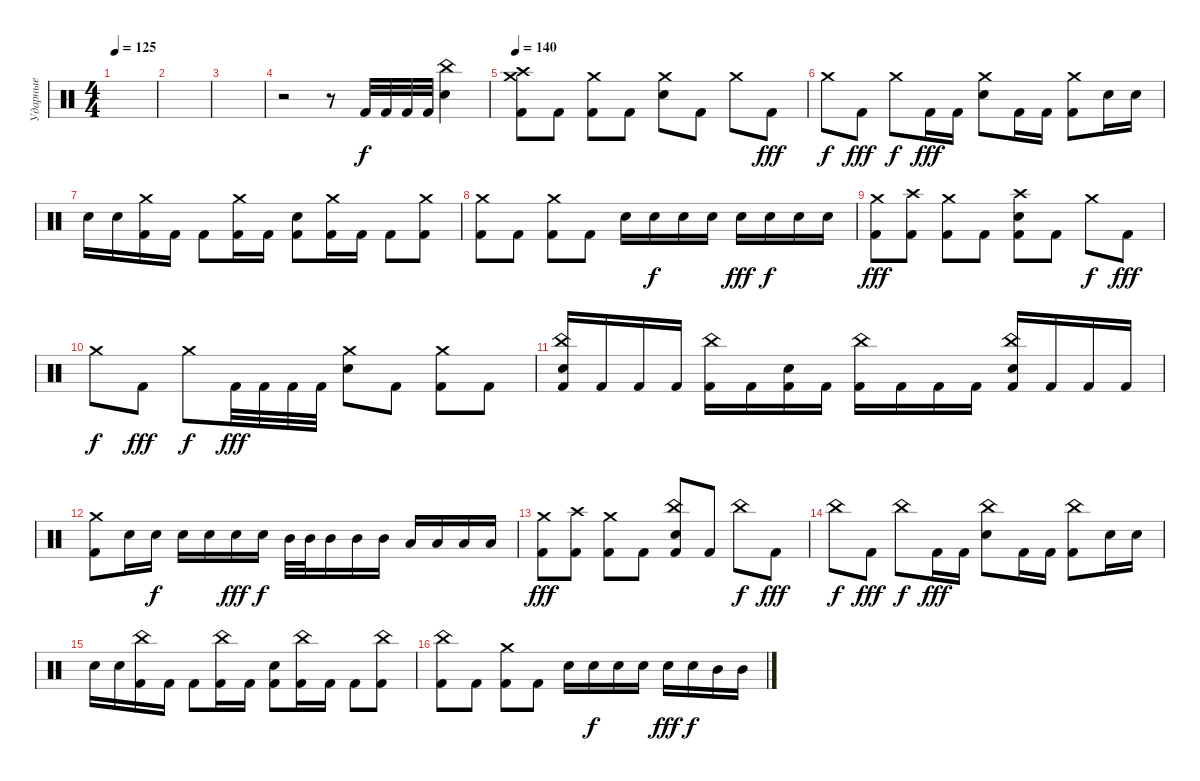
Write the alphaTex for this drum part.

\track ("Ударные" "Ударные") {instrument percussion}
\staff {score}
\articulation defaults
\ts (4 4)
\tempo 125
\clef neutral
\ks c
|
|
|
r.2 r.8 "Kick (hit) 2".32 "Kick (hit) 2".32 "Kick (hit) 2".32 "Kick (hit) 2".32 ("China (hit)" "Electric Snare (hit)").4 |
\tempo 140
("Crash high (hit)" "Crash medium (hit)" "Kick (hit) 2").8 "Kick (hit) 2".8 ("Crash medium (hit)" "Kick (hit) 2").8 "Kick (hit) 2".8 ("Crash medium (hit)" "Electric Snare (hit)").8 "Kick (hit) 2".8 "Crash medium (hit)".8{dy f} "Kick (hit) 2".8{dy fff} |
"Crash medium (hit)".8{dy f} "Kick (hit) 2".8{dy fff} "Crash medium (hit)".8{dy f} "Kick (hit) 2".16{dy fff} "Kick (hit) 2".16 ("Crash medium (hit)" "Electric Snare (hit)").8 "Kick (hit) 2".16 "Kick (hit) 2".16 ("Crash medium (hit)" "Kick (hit) 2").8 "Electric Snare (hit)".16 "Electric Snare (hit)".16 |
"Electric Snare (hit)".16 "Electric Snare (hit)".16 ("Crash medium (hit)" "Kick (hit) 2").16 "Kick (hit) 2".16 "Kick (hit) 2".8 ("Crash medium (hit)" "Kick (hit) 2").16 "Kick (hit) 2".16 ("Electric Snare (hit)" "Kick (hit) 2").8 ("Crash medium (hit)" "Kick (hit) 2").16 "Kick (hit) 2".16 "Kick (hit) 2".8 ("Crash medium (hit)" "Kick (hit) 2").8 |
("Crash medium (hit)" "Kick (hit) 2").8 "Kick (hit) 2".8 ("Crash medium (hit)" "Kick (hit) 2").8 "Kick (hit) 2".8 "Electric Snare (hit)".16 "Electric Snare (hit)".16{dy f} "Electric Snare (hit)".16 "Electric Snare (hit)".16 "Electric Snare (hit)".16{dy fff} "Electric Snare (hit)".16{dy f} "Electric Snare (hit)".16 "Electric Snare (hit)".16 |
("Crash medium (hit)" "Kick (hit) 2").8{dy fff} ("Crash high (hit)" "Kick (hit) 2").8 ("Crash medium (hit)" "Kick (hit) 2").8 "Kick (hit) 2".8 ("Crash high (hit)" "Electric Snare (hit)" "Kick (hit) 2").8 "Kick (hit) 2".8 "Crash medium (hit)".8{dy f} "Kick (hit) 2".8{dy fff} |
"Crash medium (hit)".8{dy f} "Kick (hit) 2".8{dy fff} "Crash medium (hit)".8{dy f} "Kick (hit) 2".32{dy fff} "Kick (hit) 2".32 "Kick (hit) 2".32 "Kick (hit) 2".32 ("Crash medium (hit)" "Electric Snare (hit)").8 "Kick (hit) 2".8 ("Crash medium (hit)" "Kick (hit) 2").8 "Kick (hit) 2".8 |
("China (hit)" "Electric Snare (hit)" "Kick (hit) 2").16 "Kick (hit) 2".16 "Kick (hit) 2".16 "Kick (hit) 2".16 ("China (hit)" "Kick (hit) 2").16 "Kick (hit) 2".16 ("Electric Snare (hit)" "Kick (hit) 2").16 "Kick (hit) 2".16 ("China (hit)" "Kick (hit) 2").16 "Kick (hit) 2".16 "Kick (hit) 2".16 "Kick (hit) 2".16 ("China (hit)" "Electric Snare (hit)" "Kick (hit) 2").16 "Kick (hit) 2".16 "Kick (hit) 2".16 "Kick (hit) 2".16 |
("Crash medium (hit)" "Kick (hit) 2").8 "Electric Snare (hit)".16 "Electric Snare (hit)".16{dy f} "Electric Snare (hit)".16 "Electric Snare (hit)".16 "Electric Snare (hit)".16{dy fff} "Electric Snare (hit)".16{dy f} "Mid Tom (hit)".32 "Mid Tom (hit)".32 "Mid Tom (hit)".16 "Mid Tom (hit)".16 "Mid Tom (hit)".16 "Low Floor Tom (hit)".16 "Low Floor Tom (hit)".16 "Low Floor Tom (hit)".16 "Low Floor Tom (hit)".16 |
("Crash medium (hit)" "Kick (hit) 2").8{dy fff} ("Crash high (hit)" "Kick (hit) 2").8 ("Crash medium (hit)" "Kick (hit) 2").8 "Kick (hit) 2".8 ("China (hit)" "Electric Snare (hit)" "Kick (hit) 2").8 "Kick (hit) 2".8 "China (hit)".8{dy f} "Kick (hit) 2".8{dy fff} |
"China (hit)".8{dy f} "Kick (hit) 2".8{dy fff} "China (hit)".8{dy f} "Kick (hit) 2".16{dy fff} "Kick (hit) 2".16 ("China (hit)" "Electric Snare (hit)").8 "Kick (hit) 2".16 "Kick (hit) 2".16 ("China (hit)" "Kick (hit) 2").8 "Electric Snare (hit)".16 "Electric Snare (hit)".16 |
"Electric Snare (hit)".16 "Electric Snare (hit)".16 ("China (hit)" "Kick (hit) 2").16 "Kick (hit) 2".16 "Kick (hit) 2".8 ("China (hit)" "Kick (hit) 2").16 "Kick (hit) 2".16 ("Electric Snare (hit)" "Kick (hit) 2").8 ("China (hit)" "Kick (hit) 2").16 "Kick (hit) 2".16 "Kick (hit) 2".8 ("China (hit)" "Kick (hit) 2").8 |
("China (hit)" "Kick (hit) 2").8 "Kick (hit) 2".8 ("Crash medium (hit)" "Kick (hit) 2").8 "Kick (hit) 2".8 "Electric Snare (hit)".16 "Electric Snare (hit)".16{dy f} "Electric Snare (hit)".16 "Electric Snare (hit)".16 "Electric Snare (hit)".16{dy fff} "Electric Snare (hit)".16{dy f} "Mid Tom (hit)".16 "Mid Tom (hit)".16
